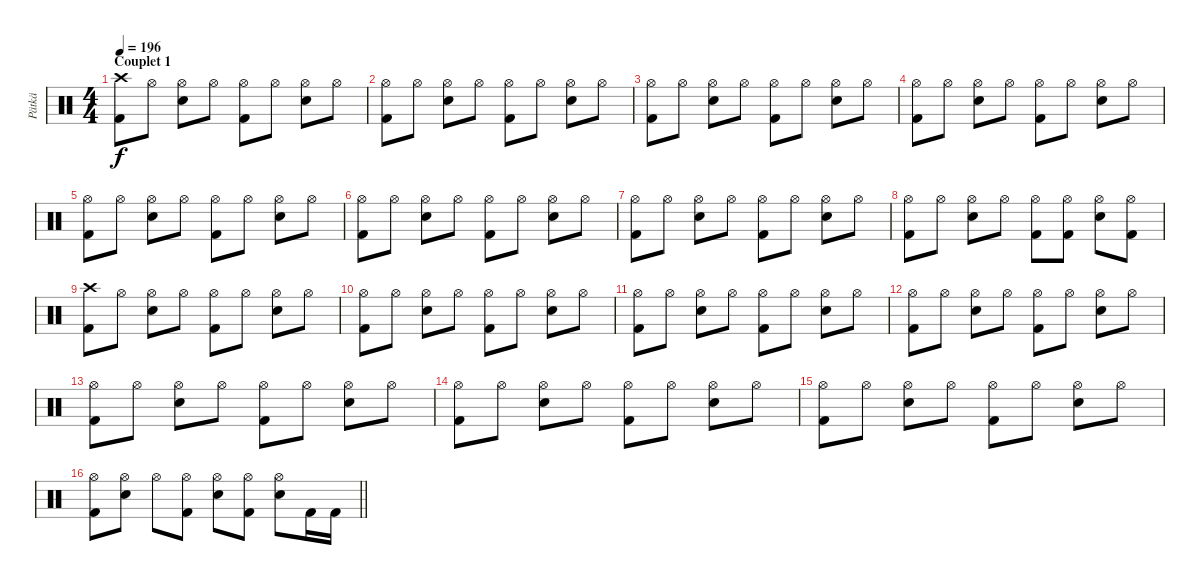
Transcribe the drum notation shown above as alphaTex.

\track ("Pätkä" "Pätkä") {instrument percussion}
\staff {score}
\articulation defaults
\ts (4 4)
\section ("" "Couplet 1")
\tempo 196
\clef neutral
\ks c
("Crash high (hit)" "Kick (hit) 2").8{dy f} "Hi-Hat (open)".8 ("Hi-Hat (open)" "Electric Snare (hit)").8 "Hi-Hat (open)".8 ("Hi-Hat (open)" "Kick (hit) 2").8 "Hi-Hat (open)".8 ("Hi-Hat (open)" "Electric Snare (hit)").8 "Hi-Hat (open)".8 |
("Hi-Hat (open)" "Kick (hit) 2").8 "Hi-Hat (open)".8 ("Hi-Hat (open)" "Electric Snare (hit)").8 "Hi-Hat (open)".8 ("Hi-Hat (open)" "Kick (hit) 2").8 "Hi-Hat (open)".8 ("Hi-Hat (open)" "Electric Snare (hit)").8 "Hi-Hat (open)".8 |
("Hi-Hat (open)" "Kick (hit) 2").8 "Hi-Hat (open)".8 ("Hi-Hat (open)" "Electric Snare (hit)").8 "Hi-Hat (open)".8 ("Hi-Hat (open)" "Kick (hit) 2").8 "Hi-Hat (open)".8 ("Hi-Hat (open)" "Electric Snare (hit)").8 "Hi-Hat (open)".8 |
("Hi-Hat (open)" "Kick (hit) 2").8 "Hi-Hat (open)".8 ("Hi-Hat (open)" "Electric Snare (hit)").8 "Hi-Hat (open)".8 ("Hi-Hat (open)" "Kick (hit) 2").8 "Hi-Hat (open)".8 ("Hi-Hat (open)" "Electric Snare (hit)").8 "Hi-Hat (open)".8 |
("Hi-Hat (open)" "Kick (hit) 2").8 "Hi-Hat (open)".8 ("Hi-Hat (open)" "Electric Snare (hit)").8 "Hi-Hat (open)".8 ("Hi-Hat (open)" "Kick (hit) 2").8 "Hi-Hat (open)".8 ("Hi-Hat (open)" "Electric Snare (hit)").8 "Hi-Hat (open)".8 |
("Hi-Hat (open)" "Kick (hit) 2").8 "Hi-Hat (open)".8 ("Hi-Hat (open)" "Electric Snare (hit)").8 "Hi-Hat (open)".8 ("Hi-Hat (open)" "Kick (hit) 2").8 "Hi-Hat (open)".8 ("Hi-Hat (open)" "Electric Snare (hit)").8 "Hi-Hat (open)".8 |
("Hi-Hat (open)" "Kick (hit) 2").8 "Hi-Hat (open)".8 ("Hi-Hat (open)" "Electric Snare (hit)").8 "Hi-Hat (open)".8 ("Hi-Hat (open)" "Kick (hit) 2").8 "Hi-Hat (open)".8 ("Hi-Hat (open)" "Electric Snare (hit)").8 "Hi-Hat (open)".8 |
("Hi-Hat (open)" "Kick (hit) 2").8 "Hi-Hat (open)".8 ("Hi-Hat (open)" "Electric Snare (hit)").8 "Hi-Hat (open)".8 ("Hi-Hat (open)" "Kick (hit) 2").8 ("Hi-Hat (open)" "Kick (hit) 2").8 ("Hi-Hat (open)" "Electric Snare (hit)").8 ("Hi-Hat (open)" "Kick (hit) 2").8 |
("Crash high (hit)" "Kick (hit) 2").8 "Hi-Hat (open)".8 ("Hi-Hat (open)" "Electric Snare (hit)").8 "Hi-Hat (open)".8 ("Hi-Hat (open)" "Kick (hit) 2").8 "Hi-Hat (open)".8 ("Hi-Hat (open)" "Electric Snare (hit)").8 "Hi-Hat (open)".8 |
("Hi-Hat (open)" "Kick (hit) 2").8 "Hi-Hat (open)".8 ("Hi-Hat (open)" "Electric Snare (hit)").8 "Hi-Hat (open)".8 ("Hi-Hat (open)" "Kick (hit) 2").8 "Hi-Hat (open)".8 ("Hi-Hat (open)" "Electric Snare (hit)").8 "Hi-Hat (open)".8 |
("Hi-Hat (open)" "Kick (hit) 2").8 "Hi-Hat (open)".8 ("Hi-Hat (open)" "Electric Snare (hit)").8 "Hi-Hat (open)".8 ("Hi-Hat (open)" "Kick (hit) 2").8 "Hi-Hat (open)".8 ("Hi-Hat (open)" "Electric Snare (hit)").8 "Hi-Hat (open)".8 |
("Hi-Hat (open)" "Kick (hit) 2").8 "Hi-Hat (open)".8 ("Hi-Hat (open)" "Electric Snare (hit)").8 "Hi-Hat (open)".8 ("Hi-Hat (open)" "Kick (hit) 2").8 "Hi-Hat (open)".8 ("Hi-Hat (open)" "Electric Snare (hit)").8 "Hi-Hat (open)".8 |
("Hi-Hat (open)" "Kick (hit) 2").8 "Hi-Hat (open)".8 ("Hi-Hat (open)" "Electric Snare (hit)").8 "Hi-Hat (open)".8 ("Hi-Hat (open)" "Kick (hit) 2").8 "Hi-Hat (open)".8 ("Hi-Hat (open)" "Electric Snare (hit)").8 "Hi-Hat (open)".8 |
("Hi-Hat (open)" "Kick (hit) 2").8 "Hi-Hat (open)".8 ("Hi-Hat (open)" "Electric Snare (hit)").8 "Hi-Hat (open)".8 ("Hi-Hat (open)" "Kick (hit) 2").8 "Hi-Hat (open)".8 ("Hi-Hat (open)" "Electric Snare (hit)").8 "Hi-Hat (open)".8 |
("Hi-Hat (open)" "Kick (hit) 2").8 "Hi-Hat (open)".8 ("Hi-Hat (open)" "Electric Snare (hit)").8 "Hi-Hat (open)".8 ("Hi-Hat (open)" "Kick (hit) 2").8 "Hi-Hat (open)".8 ("Hi-Hat (open)" "Electric Snare (hit)").8 "Hi-Hat (open)".8 |
\barLineRight lightlight
("Hi-Hat (open)" "Kick (hit) 2").8 ("Hi-Hat (open)" "Electric Snare (hit)").8 "Hi-Hat (open)".8 ("Hi-Hat (open)" "Kick (hit) 2").8 ("Hi-Hat (open)" "Electric Snare (hit)").8 ("Hi-Hat (open)" "Kick (hit) 2").8 ("Hi-Hat (open)" "Electric Snare (hit)").8 "Kick (hit) 2".16 "Kick (hit) 2".16
